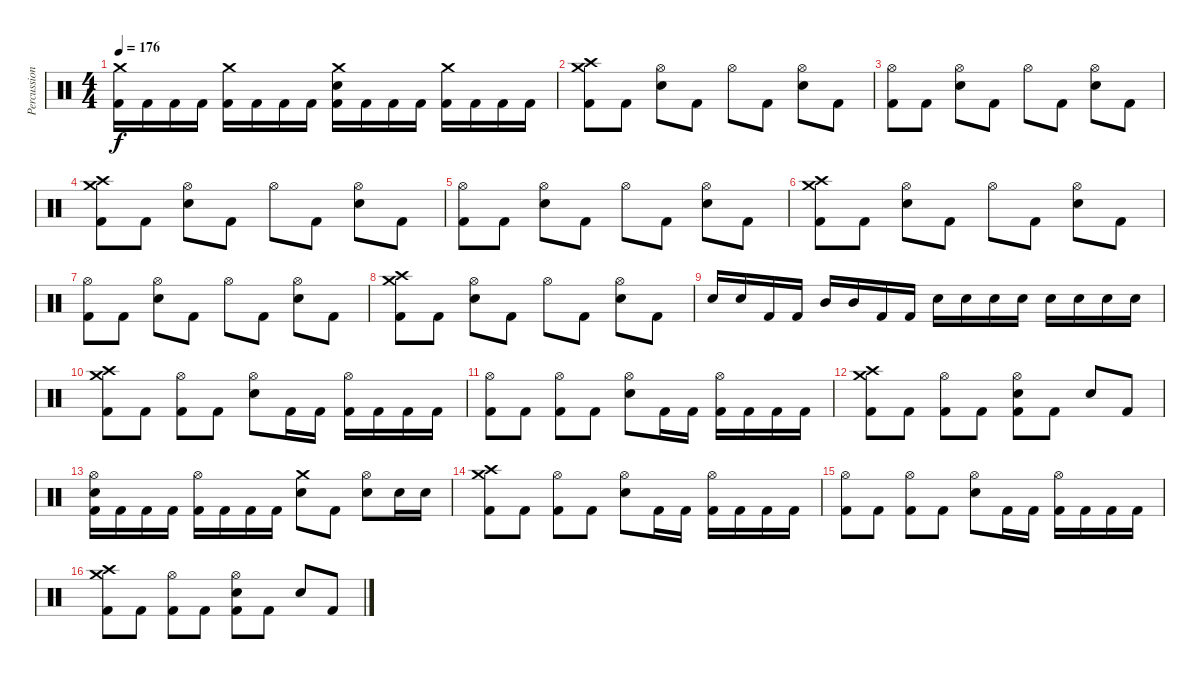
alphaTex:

\track ("Percussion" "Percussion") {instrument percussion}
\staff {score}
\articulation defaults
\ts (4 4)
\tempo 176
\clef neutral
\ks c
("Crash medium (hit)" "Kick (hit) 2").16{dy f} "Kick (hit) 2".16 "Kick (hit) 2".16 "Kick (hit) 2".16 ("Crash medium (hit)" "Kick (hit) 2").16 "Kick (hit) 2".16 "Kick (hit) 2".16 "Kick (hit) 2".16 ("Crash medium (hit)" "Snare (hit) 2" "Kick (hit) 2").16 "Kick (hit) 2".16 "Kick (hit) 2".16 "Kick (hit) 2".16 ("Crash medium (hit)" "Kick (hit) 2").16 "Kick (hit) 2".16 "Kick (hit) 2".16 "Kick (hit) 2".16 |
("Crash high (hit)" "Crash medium (hit)" "Kick (hit) 2").8 "Kick (hit) 2".8 ("Hi-Hat (open)" "Snare (hit) 2").8 "Kick (hit) 2".8 "Hi-Hat (open)".8 "Kick (hit) 2".8 ("Hi-Hat (open)" "Snare (hit) 2").8 "Kick (hit) 2".8 |
("Hi-Hat (open)" "Kick (hit) 2").8 "Kick (hit) 2".8 ("Hi-Hat (open)" "Snare (hit) 2").8 "Kick (hit) 2".8 "Hi-Hat (open)".8 "Kick (hit) 2".8 ("Hi-Hat (open)" "Snare (hit) 2").8 "Kick (hit) 2".8 |
("Crash high (hit)" "Crash medium (hit)" "Kick (hit) 2").8 "Kick (hit) 2".8 ("Hi-Hat (open)" "Snare (hit) 2").8 "Kick (hit) 2".8 "Hi-Hat (open)".8 "Kick (hit) 2".8 ("Hi-Hat (open)" "Snare (hit) 2").8 "Kick (hit) 2".8 |
("Hi-Hat (open)" "Kick (hit) 2").8 "Kick (hit) 2".8 ("Hi-Hat (open)" "Snare (hit) 2").8 "Kick (hit) 2".8 "Hi-Hat (open)".8 "Kick (hit) 2".8 ("Hi-Hat (open)" "Snare (hit) 2").8 "Kick (hit) 2".8 |
("Crash high (hit)" "Crash medium (hit)" "Kick (hit) 2").8 "Kick (hit) 2".8 ("Hi-Hat (open)" "Snare (hit) 2").8 "Kick (hit) 2".8 "Hi-Hat (open)".8 "Kick (hit) 2".8 ("Hi-Hat (open)" "Snare (hit) 2").8 "Kick (hit) 2".8 |
("Hi-Hat (open)" "Kick (hit) 2").8 "Kick (hit) 2".8 ("Hi-Hat (open)" "Snare (hit) 2").8 "Kick (hit) 2".8 "Hi-Hat (open)".8 "Kick (hit) 2".8 ("Hi-Hat (open)" "Snare (hit) 2").8 "Kick (hit) 2".8 |
("Crash high (hit)" "Crash medium (hit)" "Kick (hit) 2").8 "Kick (hit) 2".8 ("Hi-Hat (open)" "Snare (hit) 2").8 "Kick (hit) 2".8 "Hi-Hat (open)".8 "Kick (hit) 2".8 ("Hi-Hat (open)" "Snare (hit) 2").8 "Kick (hit) 2".8 |
"Snare (hit) 2".16 "Snare (hit) 2".16 "Kick (hit) 2".16 "Kick (hit) 2".16 "Mid Tom (hit)".16 "Mid Tom (hit)".16 "Kick (hit) 2".16 "Kick (hit) 2".16 "Snare (hit) 2".16 "Snare (hit) 2".16 "Snare (hit) 2".16 "Snare (hit) 2".16 "Snare (hit) 2".16 "Snare (hit) 2".16 "Snare (hit) 2".16 "Snare (hit) 2".16 |
("Crash high (hit)" "Crash medium (hit)" "Kick (hit) 2").8 "Kick (hit) 2".8 ("Hi-Hat (open)" "Kick (hit) 2").8 "Kick (hit) 2".8 ("Hi-Hat (open)" "Snare (hit) 2").8 "Kick (hit) 2".16 "Kick (hit) 2".16 ("Hi-Hat (open)" "Kick (hit) 2").16 "Kick (hit) 2".16 "Kick (hit) 2".16 "Kick (hit) 2".16 |
("Hi-Hat (open)" "Kick (hit) 2").8 "Kick (hit) 2".8 ("Hi-Hat (open)" "Kick (hit) 2").8 "Kick (hit) 2".8 ("Hi-Hat (open)" "Snare (hit) 2").8 "Kick (hit) 2".16 "Kick (hit) 2".16 ("Hi-Hat (open)" "Kick (hit) 2").16 "Kick (hit) 2".16 "Kick (hit) 2".16 "Kick (hit) 2".16 |
("Crash high (hit)" "Crash medium (hit)" "Kick (hit) 2").8 "Kick (hit) 2".8 ("Hi-Hat (open)" "Kick (hit) 2").8 "Kick (hit) 2".8 ("Hi-Hat (open)" "Snare (hit) 2" "Kick (hit) 2").8 "Kick (hit) 2".8 "Snare (hit) 2".8 "Kick (hit) 2".8 |
("Hi-Hat (open)" "Snare (hit) 2" "Kick (hit) 2").16 "Kick (hit) 2".16 "Kick (hit) 2".16 "Kick (hit) 2".16 ("Hi-Hat (open)" "Kick (hit) 2").16 "Kick (hit) 2".16 "Kick (hit) 2".16 "Kick (hit) 2".16 ("Crash medium (hit)" "Snare (hit) 2").8 "Kick (hit) 2".8 ("Hi-Hat (open)" "Snare (hit) 2").8 "Snare (hit) 2".16 "Snare (hit) 2".16 |
("Crash high (hit)" "Crash medium (hit)" "Kick (hit) 2").8 "Kick (hit) 2".8 ("Hi-Hat (open)" "Kick (hit) 2").8 "Kick (hit) 2".8 ("Hi-Hat (open)" "Snare (hit) 2").8 "Kick (hit) 2".16 "Kick (hit) 2".16 ("Hi-Hat (open)" "Kick (hit) 2").16 "Kick (hit) 2".16 "Kick (hit) 2".16 "Kick (hit) 2".16 |
("Hi-Hat (open)" "Kick (hit) 2").8 "Kick (hit) 2".8 ("Hi-Hat (open)" "Kick (hit) 2").8 "Kick (hit) 2".8 ("Hi-Hat (open)" "Snare (hit) 2").8 "Kick (hit) 2".16 "Kick (hit) 2".16 ("Hi-Hat (open)" "Kick (hit) 2").16 "Kick (hit) 2".16 "Kick (hit) 2".16 "Kick (hit) 2".16 |
("Crash high (hit)" "Crash medium (hit)" "Kick (hit) 2").8 "Kick (hit) 2".8 ("Hi-Hat (open)" "Kick (hit) 2").8 "Kick (hit) 2".8 ("Hi-Hat (open)" "Snare (hit) 2" "Kick (hit) 2").8 "Kick (hit) 2".8 "Snare (hit) 2".8 "Kick (hit) 2".8
